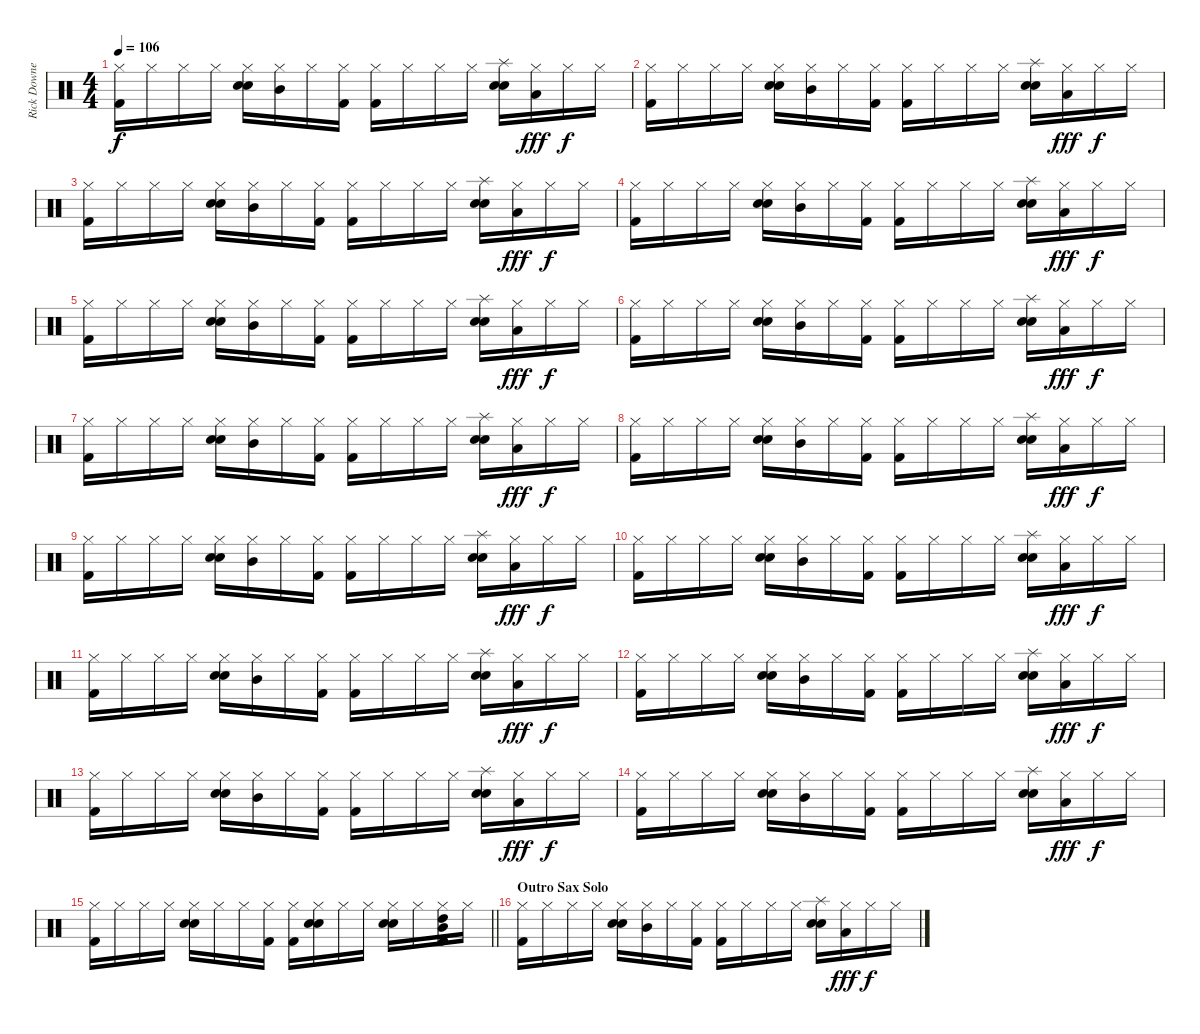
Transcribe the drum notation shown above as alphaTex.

\track ("Rick Downey" "Rick Downe") {instrument percussion}
\staff {score}
\articulation defaults
\ts (4 4)
\tempo 106
\clef neutral
\ks c
("Hi-Hat (closed)" "Kick (hit) 2").16{dy f} "Hi-Hat (closed)".16 "Hi-Hat (closed)".16 "Hi-Hat (closed)".16 ("Hi-Hat (closed)" "Electric Snare (hit)" "Snare (hit) 2").16 ("Mid Tom (hit)" "Hi-Hat (closed)").16 "Hi-Hat (closed)".16 ("Hi-Hat (closed)" "Kick (hit) 2").16 ("Hi-Hat (closed)" "Kick (hit) 2").16 "Hi-Hat (closed)".16 "Hi-Hat (closed)".16 "Hi-Hat (closed)".16 ("Splash (hit)" "Electric Snare (hit)" "Snare (hit) 2").16 ("Low Tom (hit)" "Hi-Hat (closed)").16{dy fff} "Hi-Hat (closed)".16{dy f} "Hi-Hat (closed)".16 |
("Hi-Hat (closed)" "Kick (hit) 2").16 "Hi-Hat (closed)".16 "Hi-Hat (closed)".16 "Hi-Hat (closed)".16 ("Hi-Hat (closed)" "Electric Snare (hit)" "Snare (hit) 2").16 ("Mid Tom (hit)" "Hi-Hat (closed)").16 "Hi-Hat (closed)".16 ("Hi-Hat (closed)" "Kick (hit) 2").16 ("Hi-Hat (closed)" "Kick (hit) 2").16 "Hi-Hat (closed)".16 "Hi-Hat (closed)".16 "Hi-Hat (closed)".16 ("Splash (hit)" "Electric Snare (hit)" "Snare (hit) 2").16 ("Low Tom (hit)" "Hi-Hat (closed)").16{dy fff} "Hi-Hat (closed)".16{dy f} "Hi-Hat (closed)".16 |
("Hi-Hat (closed)" "Kick (hit) 2").16 "Hi-Hat (closed)".16 "Hi-Hat (closed)".16 "Hi-Hat (closed)".16 ("Hi-Hat (closed)" "Electric Snare (hit)" "Snare (hit) 2").16 ("Mid Tom (hit)" "Hi-Hat (closed)").16 "Hi-Hat (closed)".16 ("Hi-Hat (closed)" "Kick (hit) 2").16 ("Hi-Hat (closed)" "Kick (hit) 2").16 "Hi-Hat (closed)".16 "Hi-Hat (closed)".16 "Hi-Hat (closed)".16 ("Splash (hit)" "Electric Snare (hit)" "Snare (hit) 2").16 ("Low Tom (hit)" "Hi-Hat (closed)").16{dy fff} "Hi-Hat (closed)".16{dy f} "Hi-Hat (closed)".16 |
("Hi-Hat (closed)" "Kick (hit) 2").16 "Hi-Hat (closed)".16 "Hi-Hat (closed)".16 "Hi-Hat (closed)".16 ("Hi-Hat (closed)" "Electric Snare (hit)" "Snare (hit) 2").16 ("Mid Tom (hit)" "Hi-Hat (closed)").16 "Hi-Hat (closed)".16 ("Hi-Hat (closed)" "Kick (hit) 2").16 ("Hi-Hat (closed)" "Kick (hit) 2").16 "Hi-Hat (closed)".16 "Hi-Hat (closed)".16 "Hi-Hat (closed)".16 ("Splash (hit)" "Electric Snare (hit)" "Snare (hit) 2").16 ("Low Tom (hit)" "Hi-Hat (closed)").16{dy fff} "Hi-Hat (closed)".16{dy f} "Hi-Hat (closed)".16 |
("Hi-Hat (closed)" "Kick (hit) 2").16 "Hi-Hat (closed)".16 "Hi-Hat (closed)".16 "Hi-Hat (closed)".16 ("Hi-Hat (closed)" "Electric Snare (hit)" "Snare (hit) 2").16 ("Mid Tom (hit)" "Hi-Hat (closed)").16 "Hi-Hat (closed)".16 ("Hi-Hat (closed)" "Kick (hit) 2").16 ("Hi-Hat (closed)" "Kick (hit) 2").16 "Hi-Hat (closed)".16 "Hi-Hat (closed)".16 "Hi-Hat (closed)".16 ("Splash (hit)" "Electric Snare (hit)" "Snare (hit) 2").16 ("Low Tom (hit)" "Hi-Hat (closed)").16{dy fff} "Hi-Hat (closed)".16{dy f} "Hi-Hat (closed)".16 |
("Hi-Hat (closed)" "Kick (hit) 2").16 "Hi-Hat (closed)".16 "Hi-Hat (closed)".16 "Hi-Hat (closed)".16 ("Hi-Hat (closed)" "Electric Snare (hit)" "Snare (hit) 2").16 ("Mid Tom (hit)" "Hi-Hat (closed)").16 "Hi-Hat (closed)".16 ("Hi-Hat (closed)" "Kick (hit) 2").16 ("Hi-Hat (closed)" "Kick (hit) 2").16 "Hi-Hat (closed)".16 "Hi-Hat (closed)".16 "Hi-Hat (closed)".16 ("Splash (hit)" "Electric Snare (hit)" "Snare (hit) 2").16 ("Low Tom (hit)" "Hi-Hat (closed)").16{dy fff} "Hi-Hat (closed)".16{dy f} "Hi-Hat (closed)".16 |
("Hi-Hat (closed)" "Kick (hit) 2").16 "Hi-Hat (closed)".16 "Hi-Hat (closed)".16 "Hi-Hat (closed)".16 ("Hi-Hat (closed)" "Electric Snare (hit)" "Snare (hit) 2").16 ("Mid Tom (hit)" "Hi-Hat (closed)").16 "Hi-Hat (closed)".16 ("Hi-Hat (closed)" "Kick (hit) 2").16 ("Hi-Hat (closed)" "Kick (hit) 2").16 "Hi-Hat (closed)".16 "Hi-Hat (closed)".16 "Hi-Hat (closed)".16 ("Splash (hit)" "Electric Snare (hit)" "Snare (hit) 2").16 ("Low Tom (hit)" "Hi-Hat (closed)").16{dy fff} "Hi-Hat (closed)".16{dy f} "Hi-Hat (closed)".16 |
("Hi-Hat (closed)" "Kick (hit) 2").16 "Hi-Hat (closed)".16 "Hi-Hat (closed)".16 "Hi-Hat (closed)".16 ("Hi-Hat (closed)" "Electric Snare (hit)" "Snare (hit) 2").16 ("Mid Tom (hit)" "Hi-Hat (closed)").16 "Hi-Hat (closed)".16 ("Hi-Hat (closed)" "Kick (hit) 2").16 ("Hi-Hat (closed)" "Kick (hit) 2").16 "Hi-Hat (closed)".16 "Hi-Hat (closed)".16 "Hi-Hat (closed)".16 ("Splash (hit)" "Electric Snare (hit)" "Snare (hit) 2").16 ("Low Tom (hit)" "Hi-Hat (closed)").16{dy fff} "Hi-Hat (closed)".16{dy f} "Hi-Hat (closed)".16 |
("Hi-Hat (closed)" "Kick (hit) 2").16 "Hi-Hat (closed)".16 "Hi-Hat (closed)".16 "Hi-Hat (closed)".16 ("Hi-Hat (closed)" "Electric Snare (hit)" "Snare (hit) 2").16 ("Mid Tom (hit)" "Hi-Hat (closed)").16 "Hi-Hat (closed)".16 ("Hi-Hat (closed)" "Kick (hit) 2").16 ("Hi-Hat (closed)" "Kick (hit) 2").16 "Hi-Hat (closed)".16 "Hi-Hat (closed)".16 "Hi-Hat (closed)".16 ("Splash (hit)" "Electric Snare (hit)" "Snare (hit) 2").16 ("Low Tom (hit)" "Hi-Hat (closed)").16{dy fff} "Hi-Hat (closed)".16{dy f} "Hi-Hat (closed)".16 |
("Hi-Hat (closed)" "Kick (hit) 2").16 "Hi-Hat (closed)".16 "Hi-Hat (closed)".16 "Hi-Hat (closed)".16 ("Hi-Hat (closed)" "Electric Snare (hit)" "Snare (hit) 2").16 ("Mid Tom (hit)" "Hi-Hat (closed)").16 "Hi-Hat (closed)".16 ("Hi-Hat (closed)" "Kick (hit) 2").16 ("Hi-Hat (closed)" "Kick (hit) 2").16 "Hi-Hat (closed)".16 "Hi-Hat (closed)".16 "Hi-Hat (closed)".16 ("Splash (hit)" "Electric Snare (hit)" "Snare (hit) 2").16 ("Low Tom (hit)" "Hi-Hat (closed)").16{dy fff} "Hi-Hat (closed)".16{dy f} "Hi-Hat (closed)".16 |
("Hi-Hat (closed)" "Kick (hit) 2").16 "Hi-Hat (closed)".16 "Hi-Hat (closed)".16 "Hi-Hat (closed)".16 ("Hi-Hat (closed)" "Electric Snare (hit)" "Snare (hit) 2").16 ("Mid Tom (hit)" "Hi-Hat (closed)").16 "Hi-Hat (closed)".16 ("Hi-Hat (closed)" "Kick (hit) 2").16 ("Hi-Hat (closed)" "Kick (hit) 2").16 "Hi-Hat (closed)".16 "Hi-Hat (closed)".16 "Hi-Hat (closed)".16 ("Splash (hit)" "Electric Snare (hit)" "Snare (hit) 2").16 ("Low Tom (hit)" "Hi-Hat (closed)").16{dy fff} "Hi-Hat (closed)".16{dy f} "Hi-Hat (closed)".16 |
("Hi-Hat (closed)" "Kick (hit) 2").16 "Hi-Hat (closed)".16 "Hi-Hat (closed)".16 "Hi-Hat (closed)".16 ("Hi-Hat (closed)" "Electric Snare (hit)" "Snare (hit) 2").16 ("Mid Tom (hit)" "Hi-Hat (closed)").16 "Hi-Hat (closed)".16 ("Hi-Hat (closed)" "Kick (hit) 2").16 ("Hi-Hat (closed)" "Kick (hit) 2").16 "Hi-Hat (closed)".16 "Hi-Hat (closed)".16 "Hi-Hat (closed)".16 ("Splash (hit)" "Electric Snare (hit)" "Snare (hit) 2").16 ("Low Tom (hit)" "Hi-Hat (closed)").16{dy fff} "Hi-Hat (closed)".16{dy f} "Hi-Hat (closed)".16 |
("Hi-Hat (closed)" "Kick (hit) 2").16 "Hi-Hat (closed)".16 "Hi-Hat (closed)".16 "Hi-Hat (closed)".16 ("Hi-Hat (closed)" "Electric Snare (hit)" "Snare (hit) 2").16 ("Mid Tom (hit)" "Hi-Hat (closed)").16 "Hi-Hat (closed)".16 ("Hi-Hat (closed)" "Kick (hit) 2").16 ("Hi-Hat (closed)" "Kick (hit) 2").16 "Hi-Hat (closed)".16 "Hi-Hat (closed)".16 "Hi-Hat (closed)".16 ("Splash (hit)" "Electric Snare (hit)" "Snare (hit) 2").16 ("Low Tom (hit)" "Hi-Hat (closed)").16{dy fff} "Hi-Hat (closed)".16{dy f} "Hi-Hat (closed)".16 |
("Hi-Hat (closed)" "Kick (hit) 2").16 "Hi-Hat (closed)".16 "Hi-Hat (closed)".16 "Hi-Hat (closed)".16 ("Hi-Hat (closed)" "Electric Snare (hit)" "Snare (hit) 2").16 ("Mid Tom (hit)" "Hi-Hat (closed)").16 "Hi-Hat (closed)".16 ("Hi-Hat (closed)" "Kick (hit) 2").16 ("Hi-Hat (closed)" "Kick (hit) 2").16 "Hi-Hat (closed)".16 "Hi-Hat (closed)".16 "Hi-Hat (closed)".16 ("Splash (hit)" "Electric Snare (hit)" "Snare (hit) 2").16 ("Low Tom (hit)" "Hi-Hat (closed)").16{dy fff} "Hi-Hat (closed)".16{dy f} "Hi-Hat (closed)".16 |
\barLineRight lightlight
("Hi-Hat (closed)" "Kick (hit) 2").16 "Hi-Hat (closed)".16 "Hi-Hat (closed)".16 "Hi-Hat (closed)".16 ("Hi-Hat (closed)" "Electric Snare (hit)" "Snare (hit) 2").16 "Hi-Hat (closed)".16 "Hi-Hat (closed)".16 ("Hi-Hat (closed)" "Kick (hit) 2").16 ("Hi-Hat (closed)" "Kick (hit) 2").16 ("Hi-Hat (closed)" "Electric Snare (hit)" "Snare (hit) 2").16 "Hi-Hat (closed)".16 "Hi-Hat (closed)".16 ("Hi-Hat (closed)" "Electric Snare (hit)" "Snare (hit) 2").16 "Hi-Hat (closed)".16 ("High Tom (hit)" "Mid Tom (hit)" "Hi-Hat (closed)" "Kick (hit) 2").16 "Hi-Hat (closed)".16 |
\section ("" "Outro Sax Solo")
("Hi-Hat (closed)" "Kick (hit) 2").16 "Hi-Hat (closed)".16 "Hi-Hat (closed)".16 "Hi-Hat (closed)".16 ("Hi-Hat (closed)" "Electric Snare (hit)" "Snare (hit) 2").16 ("Mid Tom (hit)" "Hi-Hat (closed)").16 "Hi-Hat (closed)".16 ("Hi-Hat (closed)" "Kick (hit) 2").16 ("Hi-Hat (closed)" "Kick (hit) 2").16 "Hi-Hat (closed)".16 "Hi-Hat (closed)".16 "Hi-Hat (closed)".16 ("Splash (hit)" "Electric Snare (hit)" "Snare (hit) 2").16 ("Low Tom (hit)" "Hi-Hat (closed)").16{dy fff} "Hi-Hat (closed)".16{dy f} "Hi-Hat (closed)".16
